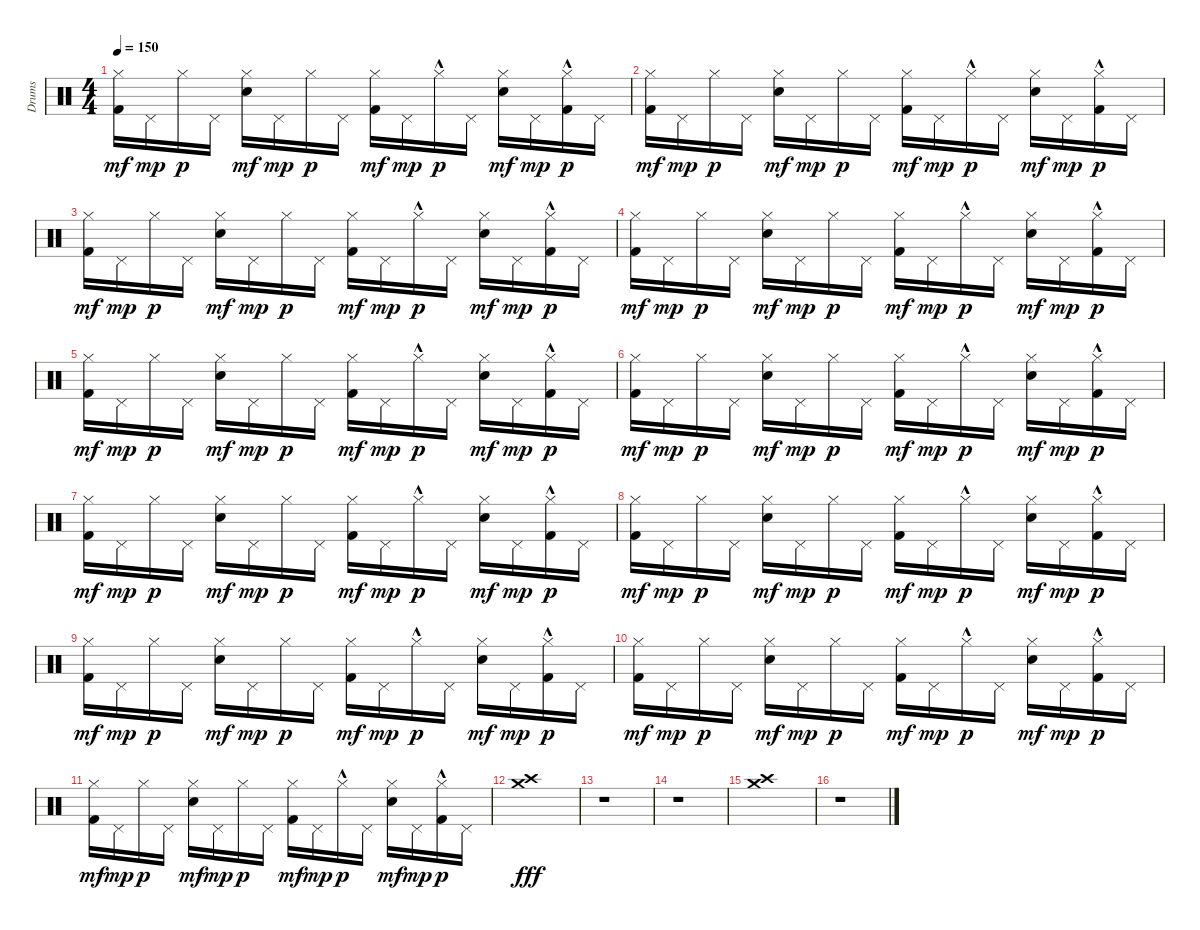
\track ("Drums" "Drums") {instrument percussion}
\staff {score}
\articulation defaults
\ts (4 4)
\tempo 150
\clef neutral
\ks c
("Kick (hit) 2" "Hi-Hat (closed)").16{dy mf} "Pedal Hi-Hat (hit)".16{dy mp} "Hi-Hat (closed)".16{dy p} "Pedal Hi-Hat (hit)".16 ("Snare (hit) 2" "Hi-Hat (closed)").16{dy mf} "Pedal Hi-Hat (hit)".16{dy mp} "Hi-Hat (closed)".16{dy p} "Pedal Hi-Hat (hit)".16 ("Kick (hit) 2" "Hi-Hat (closed)").16{dy mf} "Pedal Hi-Hat (hit)".16{dy mp} "Hi-Hat (closed)"{hac}.16{dy p} "Pedal Hi-Hat (hit)".16 ("Snare (hit) 2" "Hi-Hat (closed)").16{dy mf} "Pedal Hi-Hat (hit)".16{dy mp} ("Kick (hit) 2" "Hi-Hat (closed)"{hac}).16{dy p} "Pedal Hi-Hat (hit)".16 |
("Kick (hit) 2" "Hi-Hat (closed)").16{dy mf} "Pedal Hi-Hat (hit)".16{dy mp} "Hi-Hat (closed)".16{dy p} "Pedal Hi-Hat (hit)".16 ("Snare (hit) 2" "Hi-Hat (closed)").16{dy mf} "Pedal Hi-Hat (hit)".16{dy mp} "Hi-Hat (closed)".16{dy p} "Pedal Hi-Hat (hit)".16 ("Kick (hit) 2" "Hi-Hat (closed)").16{dy mf} "Pedal Hi-Hat (hit)".16{dy mp} "Hi-Hat (closed)"{hac}.16{dy p} "Pedal Hi-Hat (hit)".16 ("Snare (hit) 2" "Hi-Hat (closed)").16{dy mf} "Pedal Hi-Hat (hit)".16{dy mp} ("Kick (hit) 2" "Hi-Hat (closed)"{hac}).16{dy p} "Pedal Hi-Hat (hit)".16 |
("Kick (hit) 2" "Hi-Hat (closed)").16{dy mf} "Pedal Hi-Hat (hit)".16{dy mp} "Hi-Hat (closed)".16{dy p} "Pedal Hi-Hat (hit)".16 ("Snare (hit) 2" "Hi-Hat (closed)").16{dy mf} "Pedal Hi-Hat (hit)".16{dy mp} "Hi-Hat (closed)".16{dy p} "Pedal Hi-Hat (hit)".16 ("Kick (hit) 2" "Hi-Hat (closed)").16{dy mf} "Pedal Hi-Hat (hit)".16{dy mp} "Hi-Hat (closed)"{hac}.16{dy p} "Pedal Hi-Hat (hit)".16 ("Snare (hit) 2" "Hi-Hat (closed)").16{dy mf} "Pedal Hi-Hat (hit)".16{dy mp} ("Kick (hit) 2" "Hi-Hat (closed)"{hac}).16{dy p} "Pedal Hi-Hat (hit)".16 |
("Kick (hit) 2" "Hi-Hat (closed)").16{dy mf} "Pedal Hi-Hat (hit)".16{dy mp} "Hi-Hat (closed)".16{dy p} "Pedal Hi-Hat (hit)".16 ("Snare (hit) 2" "Hi-Hat (closed)").16{dy mf} "Pedal Hi-Hat (hit)".16{dy mp} "Hi-Hat (closed)".16{dy p} "Pedal Hi-Hat (hit)".16 ("Kick (hit) 2" "Hi-Hat (closed)").16{dy mf} "Pedal Hi-Hat (hit)".16{dy mp} "Hi-Hat (closed)"{hac}.16{dy p} "Pedal Hi-Hat (hit)".16 ("Snare (hit) 2" "Hi-Hat (closed)").16{dy mf} "Pedal Hi-Hat (hit)".16{dy mp} ("Kick (hit) 2" "Hi-Hat (closed)"{hac}).16{dy p} "Pedal Hi-Hat (hit)".16 |
("Kick (hit) 2" "Hi-Hat (closed)").16{dy mf} "Pedal Hi-Hat (hit)".16{dy mp} "Hi-Hat (closed)".16{dy p} "Pedal Hi-Hat (hit)".16 ("Snare (hit) 2" "Hi-Hat (closed)").16{dy mf} "Pedal Hi-Hat (hit)".16{dy mp} "Hi-Hat (closed)".16{dy p} "Pedal Hi-Hat (hit)".16 ("Kick (hit) 2" "Hi-Hat (closed)").16{dy mf} "Pedal Hi-Hat (hit)".16{dy mp} "Hi-Hat (closed)"{hac}.16{dy p} "Pedal Hi-Hat (hit)".16 ("Snare (hit) 2" "Hi-Hat (closed)").16{dy mf} "Pedal Hi-Hat (hit)".16{dy mp} ("Kick (hit) 2" "Hi-Hat (closed)"{hac}).16{dy p} "Pedal Hi-Hat (hit)".16 |
("Kick (hit) 2" "Hi-Hat (closed)").16{dy mf} "Pedal Hi-Hat (hit)".16{dy mp} "Hi-Hat (closed)".16{dy p} "Pedal Hi-Hat (hit)".16 ("Snare (hit) 2" "Hi-Hat (closed)").16{dy mf} "Pedal Hi-Hat (hit)".16{dy mp} "Hi-Hat (closed)".16{dy p} "Pedal Hi-Hat (hit)".16 ("Kick (hit) 2" "Hi-Hat (closed)").16{dy mf} "Pedal Hi-Hat (hit)".16{dy mp} "Hi-Hat (closed)"{hac}.16{dy p} "Pedal Hi-Hat (hit)".16 ("Snare (hit) 2" "Hi-Hat (closed)").16{dy mf} "Pedal Hi-Hat (hit)".16{dy mp} ("Kick (hit) 2" "Hi-Hat (closed)"{hac}).16{dy p} "Pedal Hi-Hat (hit)".16 |
("Kick (hit) 2" "Hi-Hat (closed)").16{dy mf} "Pedal Hi-Hat (hit)".16{dy mp} "Hi-Hat (closed)".16{dy p} "Pedal Hi-Hat (hit)".16 ("Snare (hit) 2" "Hi-Hat (closed)").16{dy mf} "Pedal Hi-Hat (hit)".16{dy mp} "Hi-Hat (closed)".16{dy p} "Pedal Hi-Hat (hit)".16 ("Kick (hit) 2" "Hi-Hat (closed)").16{dy mf} "Pedal Hi-Hat (hit)".16{dy mp} "Hi-Hat (closed)"{hac}.16{dy p} "Pedal Hi-Hat (hit)".16 ("Snare (hit) 2" "Hi-Hat (closed)").16{dy mf} "Pedal Hi-Hat (hit)".16{dy mp} ("Kick (hit) 2" "Hi-Hat (closed)"{hac}).16{dy p} "Pedal Hi-Hat (hit)".16 |
("Kick (hit) 2" "Hi-Hat (closed)").16{dy mf} "Pedal Hi-Hat (hit)".16{dy mp} "Hi-Hat (closed)".16{dy p} "Pedal Hi-Hat (hit)".16 ("Snare (hit) 2" "Hi-Hat (closed)").16{dy mf} "Pedal Hi-Hat (hit)".16{dy mp} "Hi-Hat (closed)".16{dy p} "Pedal Hi-Hat (hit)".16 ("Kick (hit) 2" "Hi-Hat (closed)").16{dy mf} "Pedal Hi-Hat (hit)".16{dy mp} "Hi-Hat (closed)"{hac}.16{dy p} "Pedal Hi-Hat (hit)".16 ("Snare (hit) 2" "Hi-Hat (closed)").16{dy mf} "Pedal Hi-Hat (hit)".16{dy mp} ("Kick (hit) 2" "Hi-Hat (closed)"{hac}).16{dy p} "Pedal Hi-Hat (hit)".16 |
("Kick (hit) 2" "Hi-Hat (closed)").16{dy mf} "Pedal Hi-Hat (hit)".16{dy mp} "Hi-Hat (closed)".16{dy p} "Pedal Hi-Hat (hit)".16 ("Snare (hit) 2" "Hi-Hat (closed)").16{dy mf} "Pedal Hi-Hat (hit)".16{dy mp} "Hi-Hat (closed)".16{dy p} "Pedal Hi-Hat (hit)".16 ("Kick (hit) 2" "Hi-Hat (closed)").16{dy mf} "Pedal Hi-Hat (hit)".16{dy mp} "Hi-Hat (closed)"{hac}.16{dy p} "Pedal Hi-Hat (hit)".16 ("Snare (hit) 2" "Hi-Hat (closed)").16{dy mf} "Pedal Hi-Hat (hit)".16{dy mp} ("Kick (hit) 2" "Hi-Hat (closed)"{hac}).16{dy p} "Pedal Hi-Hat (hit)".16 |
("Kick (hit) 2" "Hi-Hat (closed)").16{dy mf} "Pedal Hi-Hat (hit)".16{dy mp} "Hi-Hat (closed)".16{dy p} "Pedal Hi-Hat (hit)".16 ("Snare (hit) 2" "Hi-Hat (closed)").16{dy mf} "Pedal Hi-Hat (hit)".16{dy mp} "Hi-Hat (closed)".16{dy p} "Pedal Hi-Hat (hit)".16 ("Kick (hit) 2" "Hi-Hat (closed)").16{dy mf} "Pedal Hi-Hat (hit)".16{dy mp} "Hi-Hat (closed)"{hac}.16{dy p} "Pedal Hi-Hat (hit)".16 ("Snare (hit) 2" "Hi-Hat (closed)").16{dy mf} "Pedal Hi-Hat (hit)".16{dy mp} ("Kick (hit) 2" "Hi-Hat (closed)"{hac}).16{dy p} "Pedal Hi-Hat (hit)".16 |
("Kick (hit) 2" "Hi-Hat (closed)").16{dy mf} "Pedal Hi-Hat (hit)".16{dy mp} "Hi-Hat (closed)".16{dy p} "Pedal Hi-Hat (hit)".16 ("Snare (hit) 2" "Hi-Hat (closed)").16{dy mf} "Pedal Hi-Hat (hit)".16{dy mp} "Hi-Hat (closed)".16{dy p} "Pedal Hi-Hat (hit)".16 ("Kick (hit) 2" "Hi-Hat (closed)").16{dy mf} "Pedal Hi-Hat (hit)".16{dy mp} "Hi-Hat (closed)"{hac}.16{dy p} "Pedal Hi-Hat (hit)".16 ("Snare (hit) 2" "Hi-Hat (closed)").16{dy mf} "Pedal Hi-Hat (hit)".16{dy mp} ("Kick (hit) 2" "Hi-Hat (closed)"{hac}).16{dy p} "Pedal Hi-Hat (hit)".16 |
("Crash high (hit)" "Crash medium (hit)").1{dy fff} |
r.1 |
r.1 |
("Crash high (hit)" "Crash medium (hit)").1 |
r.1
